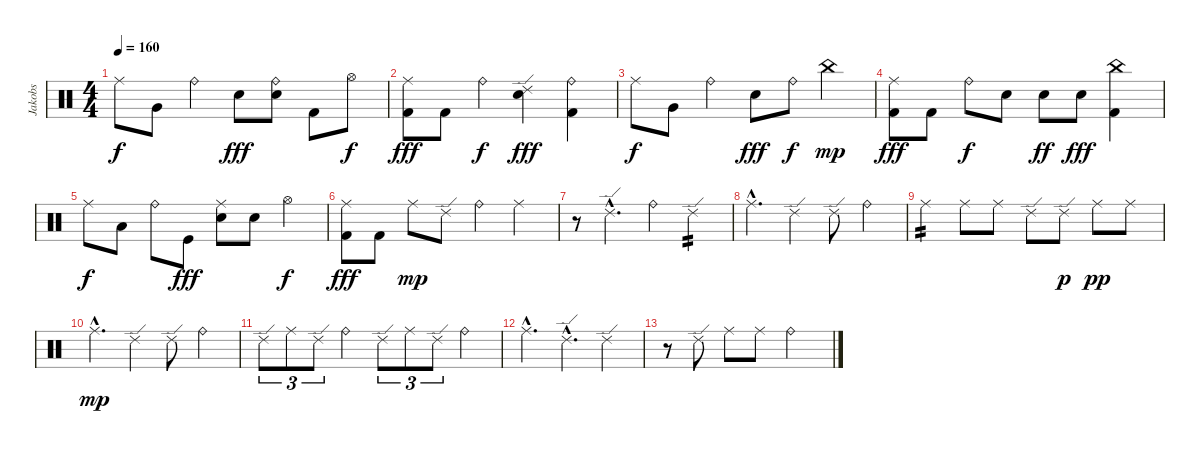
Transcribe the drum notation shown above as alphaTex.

\track ("Jakobs" "Jakobs") {instrument percussion}
\staff {score}
\articulation defaults
\ts (4 4)
\tempo 160
\clef neutral
\ks c "Ride (middle)".8{dy f} "Very Low Tom (hit)".8 "Ride (bell)".4 "Snare (hit) 2".8{dy fff}
("Ride (bell)" "Snare (hit) 2").8 "Kick (hit) 2".8 "Hi-Hat (open)".8{dy f} |
("Ride (middle)" "Kick (hit) 2").8{dy fff} "Kick (hit) 2".8 "Ride (bell)".4{dy f} ("Ride (edge) 2" "Snare (hit) 2").4{dy fff} ("Ride (bell)" "Kick (hit) 2").4 |
"Ride (middle)".8{dy f} "Very Low Tom (hit)".8 "Ride (bell)".4 "Snare (hit) 2".8{dy fff} "Ride (bell)".8{dy f} "China (hit)".4{dy mp} |
("Ride (middle)" "Kick (hit) 2").8{dy fff} "Kick (hit) 2".8 "Ride (bell)".8{dy f} "Snare (hit) 2".8 "Snare (hit) 2".8{dy ff} "Snare (hit) 2".8{dy fff} ("China (hit)" "Kick (hit) 2").4 |
"Ride (middle)".8{dy f} "Low Tom (hit)".8 "Ride (bell)".8 "Kick (hit)".8{dy fff} ("Ride (middle)" "Snare (hit) 2").8 "Snare (hit) 2".8 "Hi-Hat (open)".4{dy f} |
("Ride (middle)" "Kick (hit) 2").8{dy fff} "Kick (hit) 2".8 "Ride (middle)".8{dy mp} "Ride (edge) 2".8 "Ride (bell)".4 "Ride (middle)".4 |
r.8 "Ride (edge) 2"{hac}.4{d} "Ride (bell)".4 "Ride (edge) 2".4{tp 2} |
"Ride (middle)"{hac}.4{d} "Ride (edge) 2".4 "Ride (edge) 2".8 "Ride (bell)".4 |
"Ride (middle)".4{tp 2} "Ride (middle)".8 "Ride (middle)".8 "Ride (edge) 2".8 "Ride (edge) 2".8{dy p} "Ride (middle)".8{dy pp} "Ride (middle)".8 |
"Ride (middle)"{hac}.4{d dy mp} "Ride (edge) 2".4 "Ride (edge) 2".8 "Ride (bell)".4 |
"Ride (edge) 2".8{tu (3 2)} "Ride (middle)".8{tu (3 2)} "Ride (edge) 2".8{tu (3 2)} "Ride (bell)".4 "Ride (edge) 2".8{tu (3 2)} "Ride (middle)".8{tu (3 2)} "Ride (edge) 2".8{tu (3 2)} "Ride (bell)".4 |
"Ride (middle)"{hac}.4{d} "Ride (edge) 2"{hac}.4{d} "Ride (edge) 2".4 |
r.8 "Ride (edge) 2".8 "Ride (middle)".8 "Ride (middle)".8 "Ride (bell)".2
